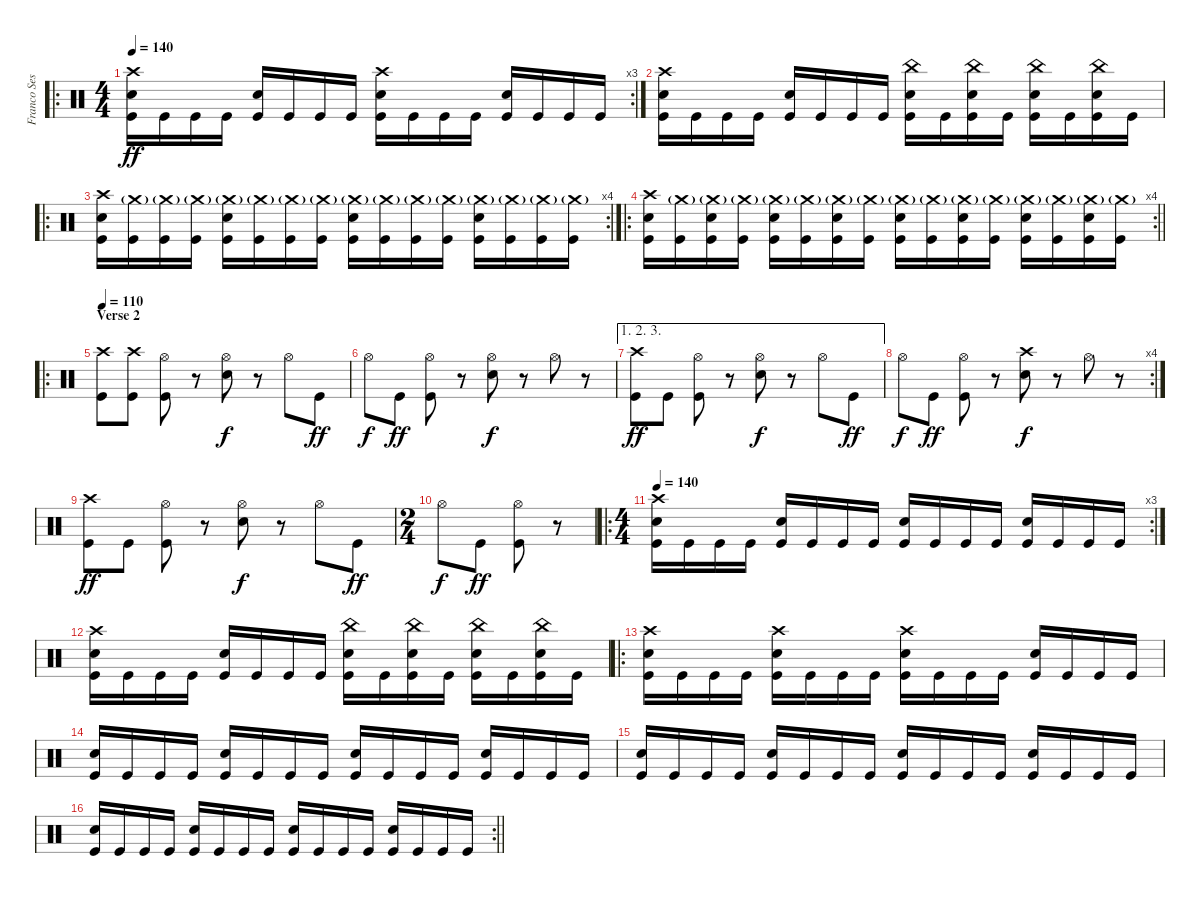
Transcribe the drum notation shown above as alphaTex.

\track ("Franco Sesa" "Franco Ses") {instrument percussion}
\staff {score}
\articulation defaults
\ro
\rc 3
\ts (4 4)
\tempo 140
\clef neutral
\ks c
("Crash high (hit)" "Electric Snare (hit)" "Kick (hit)").16{dy ff} "Kick (hit)".16 "Kick (hit)".16 "Kick (hit)".16 ("Electric Snare (hit)" "Kick (hit)").16 "Kick (hit)".16 "Kick (hit)".16 "Kick (hit)".16 ("Crash high (hit)" "Electric Snare (hit)" "Kick (hit)").16 "Kick (hit)".16 "Kick (hit)".16 "Kick (hit)".16 ("Electric Snare (hit)" "Kick (hit)").16 "Kick (hit)".16 "Kick (hit)".16 "Kick (hit)".16 |
("Crash high (hit)" "Electric Snare (hit)" "Kick (hit)").16 "Kick (hit)".16 "Kick (hit)".16 "Kick (hit)".16 ("Electric Snare (hit)" "Kick (hit)").16 "Kick (hit)".16 "Kick (hit)".16 "Kick (hit)".16 ("China (hit)" "Electric Snare (hit)" "Kick (hit)").16 "Kick (hit)".16 ("China (hit)" "Electric Snare (hit)" "Kick (hit)").16 "Kick (hit)".16 ("China (hit)" "Electric Snare (hit)" "Kick (hit)").16 "Kick (hit)".16 ("China (hit)" "Electric Snare (hit)" "Kick (hit)").16 "Kick (hit)".16 |
\ro
\rc 4
("Crash high (hit)" "Electric Snare (hit)" "Kick (hit)").16 ("Crash medium (hit)"{g} "Kick (hit)").16 ("Crash medium (hit)"{g} "Kick (hit)").16 ("Crash medium (hit)"{g} "Kick (hit)").16 ("Crash medium (hit)"{g} "Electric Snare (hit)" "Kick (hit)").16 ("Crash medium (hit)"{g} "Kick (hit)").16 ("Crash medium (hit)"{g} "Kick (hit)").16 ("Crash medium (hit)"{g} "Kick (hit)").16 ("Crash medium (hit)"{g} "Electric Snare (hit)" "Kick (hit)").16 ("Crash medium (hit)"{g} "Kick (hit)").16 ("Crash medium (hit)"{g} "Kick (hit)").16 ("Crash medium (hit)"{g} "Kick (hit)").16 ("Crash medium (hit)"{g} "Electric Snare (hit)" "Kick (hit)").16 ("Crash medium (hit)"{g} "Kick (hit)").16 ("Crash medium (hit)"{g} "Kick (hit)").16 ("Crash medium (hit)"{g} "Kick (hit)").16 |
\ro
\rc 4
\barLineRight lightlight
("Crash high (hit)" "Electric Snare (hit)" "Kick (hit)").16 ("Crash medium (hit)"{g} "Kick (hit)").16 ("Crash medium (hit)"{g} "Electric Snare (hit)" "Kick (hit)").16 ("Crash medium (hit)"{g} "Kick (hit)").16 ("Crash medium (hit)"{g} "Electric Snare (hit)" "Kick (hit)").16 ("Crash medium (hit)"{g} "Kick (hit)").16 ("Crash medium (hit)"{g} "Electric Snare (hit)" "Kick (hit)").16 ("Crash medium (hit)"{g} "Kick (hit)").16 ("Crash medium (hit)"{g} "Electric Snare (hit)" "Kick (hit)").16 ("Crash medium (hit)"{g} "Kick (hit)").16 ("Crash medium (hit)"{g} "Electric Snare (hit)" "Kick (hit)").16 ("Crash medium (hit)"{g} "Kick (hit)").16 ("Crash medium (hit)"{g} "Electric Snare (hit)" "Kick (hit)").16 ("Crash medium (hit)"{g} "Kick (hit)").16 ("Crash medium (hit)"{g} "Electric Snare (hit)" "Kick (hit)").16 ("Crash medium (hit)"{g} "Kick (hit)").16 |
\ro
\section ("" "Verse 2")
\tempo 110
("Crash high (hit)" "Kick (hit)").8 ("Crash high (hit)" "Kick (hit)").8 ("Hi-Hat (open)" "Kick (hit)").8 r.8 ("Hi-Hat (open)" "Electric Snare (hit)").8{dy f} r.8 "Hi-Hat (open)".8 "Kick (hit)".8{dy ff} |
"Hi-Hat (open)".8{dy f} "Kick (hit)".8{dy ff} ("Hi-Hat (open)" "Kick (hit)").8 r.8 ("Hi-Hat (open)" "Electric Snare (hit)").8{dy f} r.8 "Hi-Hat (open)".8 r.8 |
\ae (1 2 3)
("Crash high (hit)" "Kick (hit)").8{dy ff} "Kick (hit)".8 ("Hi-Hat (open)" "Kick (hit)").8 r.8 ("Hi-Hat (open)" "Electric Snare (hit)").8{dy f} r.8 "Hi-Hat (open)".8 "Kick (hit)".8{dy ff} |
\rc 4 "Hi-Hat (open)".8{dy f} "Kick (hit)".8{dy ff}
("Hi-Hat (open)" "Kick (hit)").8 r.8 ("Crash high (hit)" "Electric Snare (hit)").8{dy f} r.8 "Hi-Hat (open)".8 r.8 |
("Crash high (hit)" "Kick (hit)").8{dy ff} "Kick (hit)".8 ("Hi-Hat (open)" "Kick (hit)").8 r.8 ("Hi-Hat (open)" "Electric Snare (hit)").8{dy f} r.8 "Hi-Hat (open)".8 "Kick (hit)".8{dy ff} |
\ts (2 4)
"Hi-Hat (open)".8{dy f} "Kick (hit)".8{dy ff} ("Hi-Hat (open)" "Kick (hit)").8 r.8 |
\ro
\rc 3
\ts (4 4)
\tempo 140
("Crash high (hit)" "Electric Snare (hit)" "Kick (hit)").16 "Kick (hit)".16 "Kick (hit)".16 "Kick (hit)".16 ("Electric Snare (hit)" "Kick (hit)").16 "Kick (hit)".16 "Kick (hit)".16 "Kick (hit)".16 ("Electric Snare (hit)" "Kick (hit)").16 "Kick (hit)".16 "Kick (hit)".16 "Kick (hit)".16 ("Electric Snare (hit)" "Kick (hit)").16 "Kick (hit)".16 "Kick (hit)".16 "Kick (hit)".16 |
("Crash high (hit)" "Electric Snare (hit)" "Kick (hit)").16 "Kick (hit)".16 "Kick (hit)".16 "Kick (hit)".16 ("Electric Snare (hit)" "Kick (hit)").16 "Kick (hit)".16 "Kick (hit)".16 "Kick (hit)".16 ("China (hit)" "Electric Snare (hit)" "Kick (hit)").16 "Kick (hit)".16 ("China (hit)" "Electric Snare (hit)" "Kick (hit)").16 "Kick (hit)".16 ("China (hit)" "Electric Snare (hit)" "Kick (hit)").16 "Kick (hit)".16 ("China (hit)" "Electric Snare (hit)" "Kick (hit)").16 "Kick (hit)".16 |
\ro
("Crash high (hit)" "Electric Snare (hit)" "Kick (hit)").16 "Kick (hit)".16 "Kick (hit)".16 "Kick (hit)".16 ("Crash high (hit)" "Electric Snare (hit)" "Kick (hit)").16 "Kick (hit)".16 "Kick (hit)".16 "Kick (hit)".16 ("Crash high (hit)" "Electric Snare (hit)" "Kick (hit)").16 "Kick (hit)".16 "Kick (hit)".16 "Kick (hit)".16 ("Electric Snare (hit)" "Kick (hit)").16 "Kick (hit)".16 "Kick (hit)".16 "Kick (hit)".16 |
("Electric Snare (hit)" "Kick (hit)").16 "Kick (hit)".16 "Kick (hit)".16 "Kick (hit)".16 ("Electric Snare (hit)" "Kick (hit)").16 "Kick (hit)".16 "Kick (hit)".16 "Kick (hit)".16 ("Electric Snare (hit)" "Kick (hit)").16 "Kick (hit)".16 "Kick (hit)".16 "Kick (hit)".16 ("Electric Snare (hit)" "Kick (hit)").16 "Kick (hit)".16 "Kick (hit)".16 "Kick (hit)".16 |
("Electric Snare (hit)" "Kick (hit)").16 "Kick (hit)".16 "Kick (hit)".16 "Kick (hit)".16 ("Electric Snare (hit)" "Kick (hit)").16 "Kick (hit)".16 "Kick (hit)".16 "Kick (hit)".16 ("Electric Snare (hit)" "Kick (hit)").16 "Kick (hit)".16 "Kick (hit)".16 "Kick (hit)".16 ("Electric Snare (hit)" "Kick (hit)").16 "Kick (hit)".16 "Kick (hit)".16 "Kick (hit)".16 |
\rc 2
\barLineRight lightlight
("Electric Snare (hit)" "Kick (hit)").16 "Kick (hit)".16 "Kick (hit)".16 "Kick (hit)".16 ("Electric Snare (hit)" "Kick (hit)").16 "Kick (hit)".16 "Kick (hit)".16 "Kick (hit)".16 ("Electric Snare (hit)" "Kick (hit)").16 "Kick (hit)".16 "Kick (hit)".16 "Kick (hit)".16 ("Electric Snare (hit)" "Kick (hit)").16 "Kick (hit)".16 "Kick (hit)".16 "Kick (hit)".16
